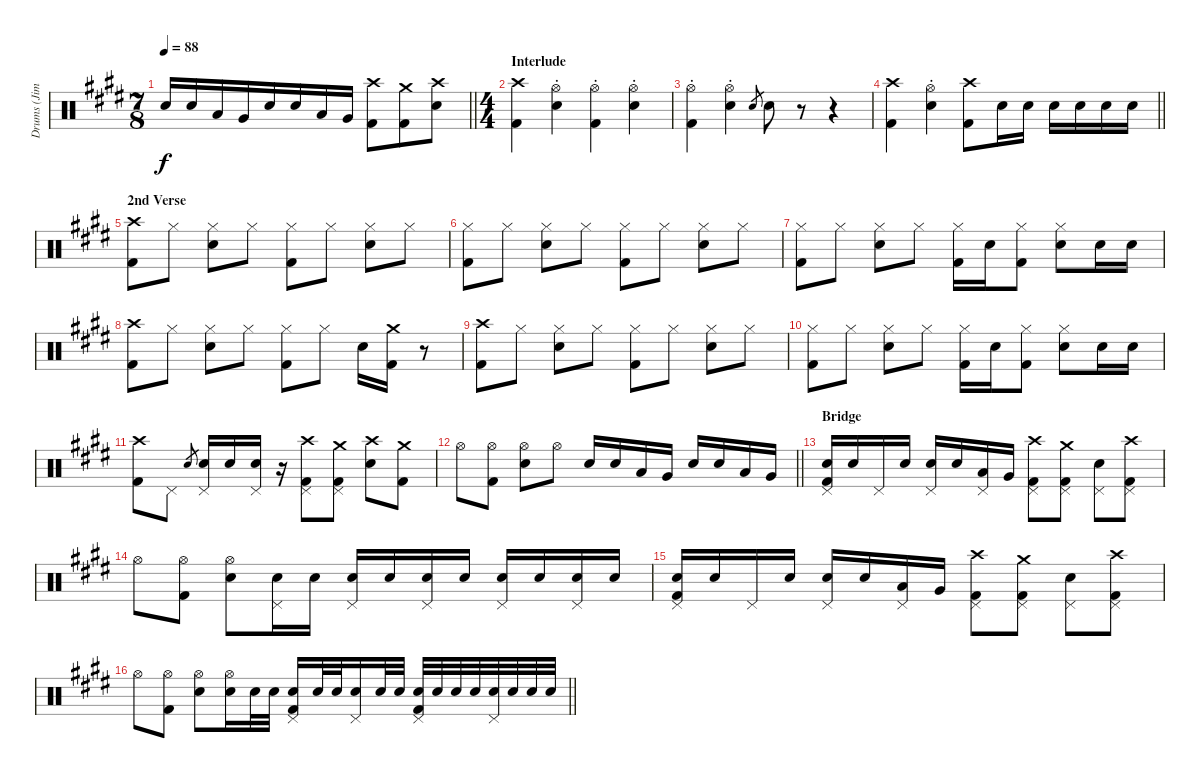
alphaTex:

\track ("Drums (Jimmy)" "Drums (Jim") {instrument percussion}
\staff {score}
\articulation defaults
\ts (7 8)
\tempo 88
\clef neutral
\barLineRight lightlight
\ks c#minor "Snare (hit) 2".16{dy f} "Snare (hit) 2".16 "Low Tom (hit)".16 "Very Low Tom (hit)".16 "Snare (hit) 2".16 "Snare (hit) 2".16 "Low Tom (hit)".16 "Very Low Tom (hit)".16
("Crash high (hit)" "Kick (hit) 2").8 ("Crash medium (hit)" "Kick (hit) 2").8 ("Crash high (hit)" "Snare (hit) 2").8 |
\ts (4 4)
\section ("" "Interlude")
\ks e
("Crash high (hit)" "Kick (hit) 2").4 ("Hi-Hat (open)"{st} "Snare (hit) 2").4 ("Hi-Hat (open)"{st} "Kick (hit) 2").4 ("Hi-Hat (open)"{st} "Snare (hit) 2").4 |
\ks c#minor
("Hi-Hat (open)"{st} "Kick (hit) 2").4 ("Hi-Hat (open)"{st} "Snare (hit) 2").4 "Snare (hit) 2".8{gr} "Snare (hit) 2".8 r.8 r.4 |
\barLineRight lightlight
\ks e
("Crash high (hit)" "Kick (hit) 2").4 ("Hi-Hat (open)"{st} "Snare (hit) 2").4 ("Crash high (hit)" "Kick (hit) 2").8 "Snare (hit) 2".16 "Snare (hit) 2".16 "Snare (hit) 2".16 "Snare (hit) 2".16 "Snare (hit) 2".16 "Snare (hit) 2".16 |
\section ("" "2nd Verse")
("Crash high (hit)" "Kick (hit) 2").8 "Hi-Hat (closed)".8 ("Hi-Hat (closed)" "Snare (hit) 2").8 "Hi-Hat (closed)".8 ("Hi-Hat (closed)" "Kick (hit) 2").8 "Hi-Hat (closed)".8 ("Hi-Hat (closed)" "Snare (hit) 2").8 "Hi-Hat (closed)".8 |
("Hi-Hat (closed)" "Kick (hit) 2").8 "Hi-Hat (closed)".8 ("Hi-Hat (closed)" "Snare (hit) 2").8 "Hi-Hat (closed)".8 ("Hi-Hat (closed)" "Kick (hit) 2").8 "Hi-Hat (closed)".8 ("Hi-Hat (closed)" "Snare (hit) 2").8 "Hi-Hat (closed)".8 |
\ks c#minor
("Hi-Hat (closed)" "Kick (hit) 2").8 "Hi-Hat (closed)".8 ("Hi-Hat (closed)" "Snare (hit) 2").8 "Hi-Hat (closed)".8 ("Hi-Hat (closed)" "Kick (hit) 2").16 "Snare (hit) 2".16 ("Hi-Hat (closed)" "Kick (hit) 2").8 ("Hi-Hat (closed)" "Snare (hit) 2").8 "Snare (hit) 2".16 "Snare (hit) 2".16 |
\ks e
("Crash high (hit)" "Kick (hit) 2").8 "Hi-Hat (closed)".8 ("Hi-Hat (closed)" "Snare (hit) 2").8 "Hi-Hat (closed)".8 ("Hi-Hat (closed)" "Kick (hit) 2").8 "Hi-Hat (closed)".8 "Snare (hit) 2".16 ("Crash medium (hit)" "Kick (hit) 2").16 r.8 |
("Crash high (hit)" "Kick (hit) 2").8 "Hi-Hat (closed)".8 ("Hi-Hat (closed)" "Snare (hit) 2").8 "Hi-Hat (closed)".8 ("Hi-Hat (closed)" "Kick (hit) 2").8 "Hi-Hat (closed)".8 ("Hi-Hat (closed)" "Snare (hit) 2").8 "Hi-Hat (closed)".8 |
\ks c#minor
("Hi-Hat (closed)" "Kick (hit) 2").8 "Hi-Hat (closed)".8 ("Hi-Hat (closed)" "Snare (hit) 2").8 "Hi-Hat (closed)".8 ("Hi-Hat (closed)" "Kick (hit) 2").16 "Snare (hit) 2".16 ("Hi-Hat (closed)" "Kick (hit) 2").8 ("Hi-Hat (closed)" "Snare (hit) 2").8 "Snare (hit) 2".16 "Snare (hit) 2".16 |
("Crash high (hit)" "Kick (hit) 2").8 "Pedal Hi-Hat (hit)".8 "Snare (hit) 2".8{gr} ("Snare (hit) 2" "Pedal Hi-Hat (hit)").16 "Snare (hit) 2".16 ("Snare (hit) 2" "Pedal Hi-Hat (hit)").16 r.16 ("Crash high (hit)" "Kick (hit) 2" "Pedal Hi-Hat (hit)").8 ("Crash medium (hit)" "Kick (hit) 2" "Pedal Hi-Hat (hit)").8 ("Crash high (hit)" "Snare (hit) 2").8 ("Crash medium (hit)" "Kick (hit) 2").8 |
\barLineRight lightlight
\ks e "Hi-Hat (open)".8
("Hi-Hat (open)" "Kick (hit) 2").8 ("Hi-Hat (open)" "Snare (hit) 2").8 "Hi-Hat (open)".8 "Snare (hit) 2".16 "Snare (hit) 2".16 "Low Tom (hit)".16 "Very Low Tom (hit)".16 "Snare (hit) 2".16 "Snare (hit) 2".16 "Low Tom (hit)".16 "Very Low Tom (hit)".16 |
\section ("" "Bridge")
("Snare (hit) 2" "Kick (hit) 2" "Pedal Hi-Hat (hit)").16 "Snare (hit) 2".16 "Pedal Hi-Hat (hit)".16 "Snare (hit) 2".16 ("Snare (hit) 2" "Pedal Hi-Hat (hit)").16 "Snare (hit) 2".16 ("Low Tom (hit)" "Pedal Hi-Hat (hit)").16 "Very Low Tom (hit)".16 ("Crash high (hit)" "Kick (hit) 2" "Pedal Hi-Hat (hit)").8 ("Crash medium (hit)" "Kick (hit) 2" "Pedal Hi-Hat (hit)").8 ("Snare (hit) 2" "Pedal Hi-Hat (hit)").8 ("Crash high (hit)" "Kick (hit) 2" "Pedal Hi-Hat (hit)").8 |
\ks c#minor "Hi-Hat (open)".8
("Hi-Hat (open)" "Kick (hit) 2").8 ("Hi-Hat (open)" "Snare (hit) 2").8 ("Snare (hit) 2" "Pedal Hi-Hat (hit)").16 "Snare (hit) 2".16 ("Snare (hit) 2" "Pedal Hi-Hat (hit)").16 "Snare (hit) 2".16 ("Snare (hit) 2" "Pedal Hi-Hat (hit)").16 "Snare (hit) 2".16 ("Snare (hit) 2" "Pedal Hi-Hat (hit)").16 "Snare (hit) 2".16 ("Snare (hit) 2" "Pedal Hi-Hat (hit)").16 "Snare (hit) 2".16 |
\ks e
("Snare (hit) 2" "Kick (hit) 2" "Pedal Hi-Hat (hit)").16 "Snare (hit) 2".16 "Pedal Hi-Hat (hit)".16 "Snare (hit) 2".16 ("Snare (hit) 2" "Pedal Hi-Hat (hit)").16 "Snare (hit) 2".16 ("Low Tom (hit)" "Pedal Hi-Hat (hit)").16 "Very Low Tom (hit)".16 ("Crash high (hit)" "Kick (hit) 2" "Pedal Hi-Hat (hit)").8 ("Crash medium (hit)" "Kick (hit) 2" "Pedal Hi-Hat (hit)").8 ("Snare (hit) 2" "Pedal Hi-Hat (hit)").8 ("Crash high (hit)" "Kick (hit) 2" "Pedal Hi-Hat (hit)").8 |
\barLineRight lightlight
\ks c#minor "Hi-Hat (open)".8
("Hi-Hat (open)" "Kick (hit) 2").8 ("Hi-Hat (open)" "Snare (hit) 2").8 ("Hi-Hat (open)" "Snare (hit) 2").16 "Snare (hit) 2".32 "Snare (hit) 2".32 ("Snare (hit) 2" "Kick (hit) 2" "Pedal Hi-Hat (hit)").16 "Snare (hit) 2".32 "Snare (hit) 2".32 ("Snare (hit) 2" "Pedal Hi-Hat (hit)").16 "Snare (hit) 2".32 "Snare (hit) 2".32 ("Snare (hit) 2" "Kick (hit) 2" "Pedal Hi-Hat (hit)").32 "Snare (hit) 2".32 "Snare (hit) 2".32 "Snare (hit) 2".32 ("Snare (hit) 2" "Pedal Hi-Hat (hit)").32 "Snare (hit) 2".32 "Snare (hit) 2".32 "Snare (hit) 2".32
